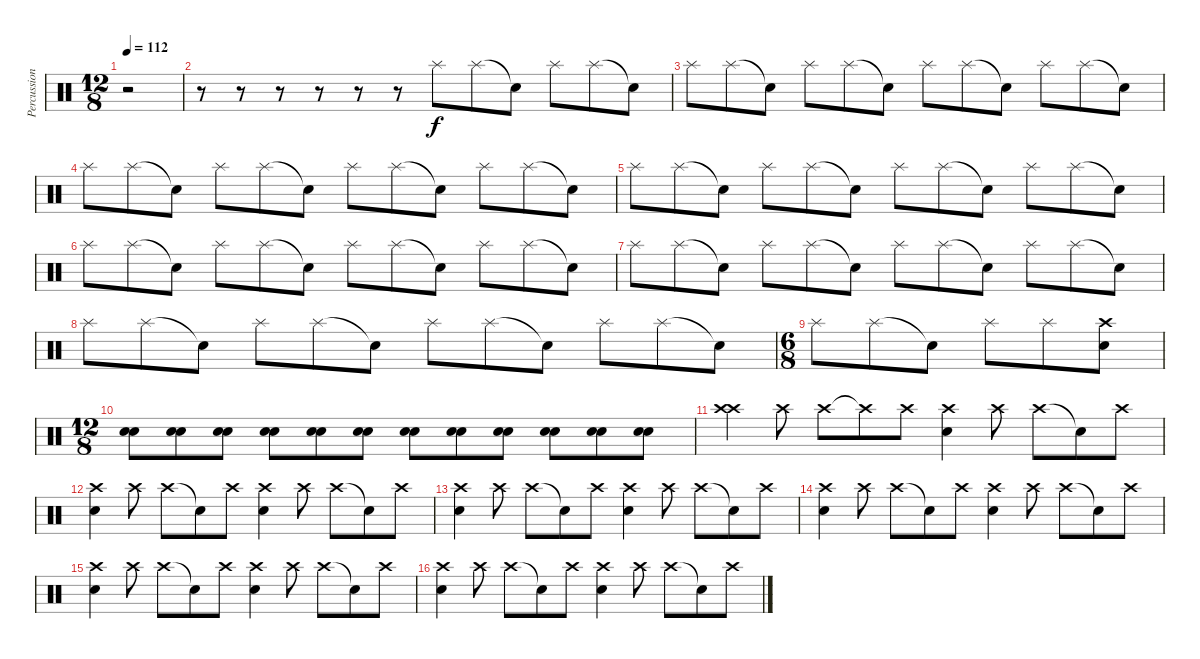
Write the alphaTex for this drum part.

\track ("Percussions" "Percussion") {instrument percussion}
\staff {score}
\articulation defaults
\ts (12 8)
\tempo 112
\clef neutral
\ks c
r.2{dy f} |
r.8 r.8 r.8 r.8 r.8 r.8 "Splash (hit)".8 "Splash (hit)".8 "Snare (hit)"{t}.8 "Splash (hit)".8 "Splash (hit)".8 "Snare (hit)"{t}.8 |
"Splash (hit)".8 "Splash (hit)".8 "Snare (hit)"{t}.8 "Splash (hit)".8 "Splash (hit)".8 "Snare (hit)"{t}.8 "Splash (hit)".8 "Splash (hit)".8 "Snare (hit)"{t}.8 "Splash (hit)".8 "Splash (hit)".8 "Snare (hit)"{t}.8 |
"Splash (hit)".8 "Splash (hit)".8 "Snare (hit)"{t}.8 "Splash (hit)".8 "Splash (hit)".8 "Snare (hit)"{t}.8 "Splash (hit)".8 "Splash (hit)".8 "Snare (hit)"{t}.8 "Splash (hit)".8 "Splash (hit)".8 "Snare (hit)"{t}.8 |
"Splash (hit)".8 "Splash (hit)".8 "Snare (hit)"{t}.8 "Splash (hit)".8 "Splash (hit)".8 "Snare (hit)"{t}.8 "Splash (hit)".8 "Splash (hit)".8 "Snare (hit)"{t}.8 "Splash (hit)".8 "Splash (hit)".8 "Snare (hit)"{t}.8 |
"Splash (hit)".8 "Splash (hit)".8 "Snare (hit)"{t}.8 "Splash (hit)".8 "Splash (hit)".8 "Snare (hit)"{t}.8 "Splash (hit)".8 "Splash (hit)".8 "Snare (hit)"{t}.8 "Splash (hit)".8 "Splash (hit)".8 "Snare (hit)"{t}.8 |
"Splash (hit)".8 "Splash (hit)".8 "Snare (hit)"{t}.8 "Splash (hit)".8 "Splash (hit)".8 "Snare (hit)"{t}.8 "Splash (hit)".8 "Splash (hit)".8 "Snare (hit)"{t}.8 "Splash (hit)".8 "Splash (hit)".8 "Snare (hit)"{t}.8 |
"Splash (hit)".8 "Splash (hit)".8 "Snare (hit)"{t}.8 "Splash (hit)".8 "Splash (hit)".8 "Snare (hit)"{t}.8 "Splash (hit)".8 "Splash (hit)".8 "Snare (hit)"{t}.8 "Splash (hit)".8 "Splash (hit)".8 "Snare (hit)"{t}.8 |
\ts (6 8)
"Splash (hit)".8 "Splash (hit)".8 "Snare (hit)"{t}.8 "Splash (hit)".8 "Splash (hit)".8 ("Crash high (hit)" "Snare (hit) 2").8 |
\ts (12 8)
("Snare (hit) 2" "Snare (hit) 2").8 ("Snare (hit) 2" "Snare (hit) 2").8 ("Snare (hit) 2" "Snare (hit) 2").8 ("Snare (hit) 2" "Snare (hit) 2").8 ("Snare (hit) 2" "Snare (hit) 2").8 ("Snare (hit) 2" "Snare (hit) 2").8 ("Snare (hit) 2" "Snare (hit) 2").8 ("Snare (hit) 2" "Snare (hit) 2").8 ("Snare (hit) 2" "Snare (hit) 2").8 ("Snare (hit) 2" "Snare (hit) 2").8 ("Snare (hit) 2" "Snare (hit) 2").8 ("Snare (hit) 2" "Snare (hit) 2").8 |
("Crash high (hit)" "Crash high (hit)").4 "Crash high (hit)".8 "Crash high (hit)".8 "Crash high (hit)"{t}.8 "Crash high (hit)".8 ("Snare (hit) 2" "Crash high (hit)").4 "Crash high (hit)".8 "Crash high (hit)".8 "Snare (hit)"{t}.8 "Crash high (hit)".8 |
("Snare (hit) 2" "Crash high (hit)").4 "Crash high (hit)".8 "Crash high (hit)".8 "Snare (hit)"{t}.8 "Crash high (hit)".8 ("Snare (hit) 2" "Crash high (hit)").4 "Crash high (hit)".8 "Crash high (hit)".8 "Snare (hit)"{t}.8 "Crash high (hit)".8 |
("Snare (hit) 2" "Crash high (hit)").4 "Crash high (hit)".8 "Crash high (hit)".8 "Snare (hit)"{t}.8 "Crash high (hit)".8 ("Snare (hit) 2" "Crash high (hit)").4 "Crash high (hit)".8 "Crash high (hit)".8 "Snare (hit)"{t}.8 "Crash high (hit)".8 |
("Snare (hit) 2" "Crash high (hit)").4 "Crash high (hit)".8 "Crash high (hit)".8 "Snare (hit)"{t}.8 "Crash high (hit)".8 ("Snare (hit) 2" "Crash high (hit)").4 "Crash high (hit)".8 "Crash high (hit)".8 "Snare (hit)"{t}.8 "Crash high (hit)".8 |
("Snare (hit) 2" "Crash high (hit)").4 "Crash high (hit)".8 "Crash high (hit)".8 "Snare (hit)"{t}.8 "Crash high (hit)".8 ("Snare (hit) 2" "Crash high (hit)").4 "Crash high (hit)".8 "Crash high (hit)".8 "Snare (hit)"{t}.8 "Crash high (hit)".8 |
("Snare (hit) 2" "Crash high (hit)").4 "Crash high (hit)".8 "Crash high (hit)".8 "Snare (hit)"{t}.8 "Crash high (hit)".8 ("Snare (hit) 2" "Crash high (hit)").4 "Crash high (hit)".8 "Crash high (hit)".8 "Snare (hit)"{t}.8 "Crash high (hit)".8
